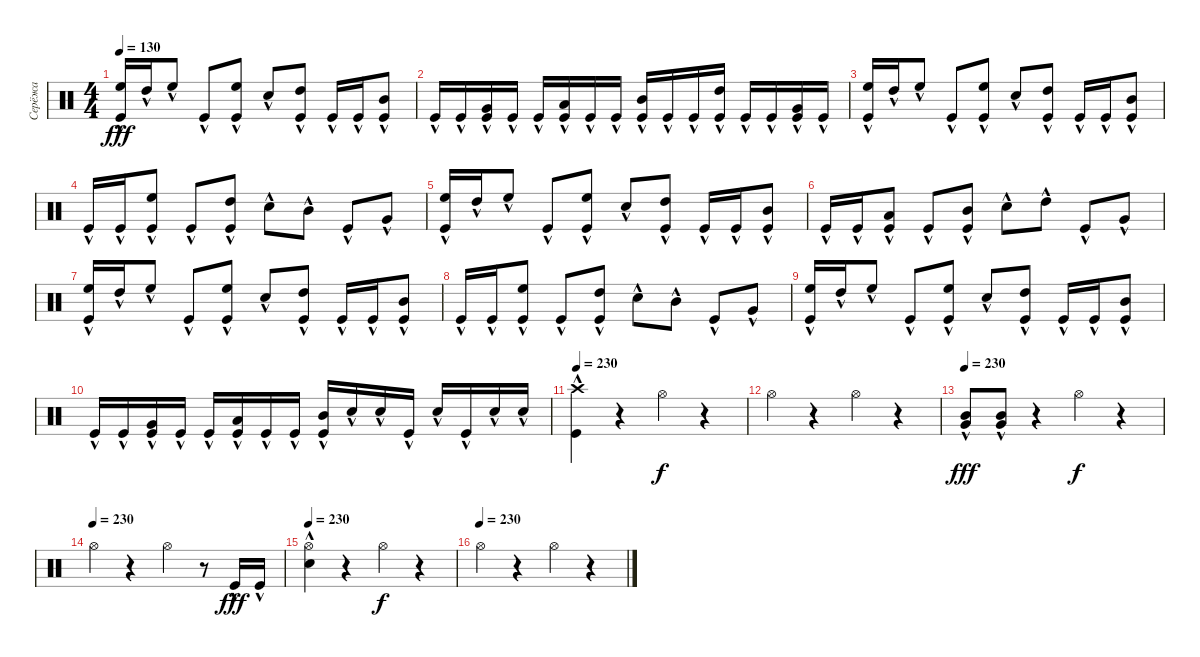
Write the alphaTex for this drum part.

\track ("Серёжа" "Серёжа") {instrument percussion}
\staff {score}
\articulation defaults
\ts (4 4)
\tempo 130
\clef neutral
\ks c
("High Floor Tom (hit)"{hac} "Kick (hit)"{hac}).16{dy fff} "High Tom (hit)"{hac}.16 "High Floor Tom (hit)"{hac}.8 "Kick (hit)"{hac}.8 ("High Floor Tom (hit)"{hac} "Kick (hit)"{hac}).8 "Snare (hit) 2"{hac}.8 ("High Tom (hit)"{hac} "Kick (hit)"{hac}).8 "Kick (hit)"{hac}.16 "Kick (hit)"{hac}.16 ("Mid Tom (hit)"{hac} "Kick (hit)"{hac}).8 |
"Kick (hit)"{hac}.16 "Kick (hit)"{hac}.16 ("Very Low Tom (hit)"{hac} "Kick (hit)"{hac}).16 "Kick (hit)"{hac}.16 "Kick (hit)"{hac}.16 ("Low Tom (hit)"{hac} "Kick (hit)"{hac}).16 "Kick (hit)"{hac}.16 "Kick (hit)"{hac}.16 ("Mid Tom (hit)"{hac} "Kick (hit)"{hac}).16 "Kick (hit)"{hac}.16 "Kick (hit)"{hac}.16 ("High Tom (hit)"{hac} "Kick (hit)"{hac}).16 "Kick (hit)"{hac}.16 "Kick (hit)"{hac}.16 ("Very Low Tom (hit)"{hac} "Kick (hit)"{hac}).16 "Kick (hit)"{hac}.16 |
("High Floor Tom (hit)"{hac} "Kick (hit)"{hac}).16 "High Tom (hit)"{hac}.16 "High Floor Tom (hit)"{hac}.8 "Kick (hit)"{hac}.8 ("High Floor Tom (hit)"{hac} "Kick (hit)"{hac}).8 "Snare (hit) 2"{hac}.8 ("High Tom (hit)"{hac} "Kick (hit)"{hac}).8 "Kick (hit)"{hac}.16 "Kick (hit)"{hac}.16 ("Mid Tom (hit)"{hac} "Kick (hit)"{hac}).8 |
"Kick (hit)"{hac}.16 "Kick (hit)"{hac}.16 ("High Floor Tom (hit)"{hac} "Kick (hit)"{hac}).8 "Kick (hit)"{hac}.8 ("High Tom (hit)"{hac} "Kick (hit)"{hac}).8 "Snare (hit) 2"{hac}.8 "Mid Tom (hit)"{hac}.8 "Kick (hit)"{hac}.8 "Very Low Tom (hit)"{hac}.8 |
("High Floor Tom (hit)"{hac} "Kick (hit)"{hac}).16 "High Tom (hit)"{hac}.16 "High Floor Tom (hit)"{hac}.8 "Kick (hit)"{hac}.8 ("High Floor Tom (hit)"{hac} "Kick (hit)"{hac}).8 "Snare (hit) 2"{hac}.8 ("High Tom (hit)"{hac} "Kick (hit)"{hac}).8 "Kick (hit)"{hac}.16 "Kick (hit)"{hac}.16 ("Mid Tom (hit)"{hac} "Kick (hit)"{hac}).8 |
"Kick (hit)"{hac}.16 "Kick (hit)"{hac}.16 ("Low Tom (hit)"{hac} "Kick (hit)"{hac}).8 "Kick (hit)"{hac}.8 ("Mid Tom (hit)"{hac} "Kick (hit)"{hac}).8 "Snare (hit) 2"{hac}.8 "High Tom (hit)"{hac}.8 "Kick (hit)"{hac}.8 "Very Low Tom (hit)"{hac}.8 |
("High Floor Tom (hit)"{hac} "Kick (hit)"{hac}).16 "High Tom (hit)"{hac}.16 "High Floor Tom (hit)"{hac}.8 "Kick (hit)"{hac}.8 ("High Floor Tom (hit)"{hac} "Kick (hit)"{hac}).8 "Snare (hit) 2"{hac}.8 ("High Tom (hit)"{hac} "Kick (hit)"{hac}).8 "Kick (hit)"{hac}.16 "Kick (hit)"{hac}.16 ("Mid Tom (hit)"{hac} "Kick (hit)"{hac}).8 |
"Kick (hit)"{hac}.16 "Kick (hit)"{hac}.16 ("High Floor Tom (hit)"{hac} "Kick (hit)"{hac}).8 "Kick (hit)"{hac}.8 ("High Tom (hit)"{hac} "Kick (hit)"{hac}).8 "Snare (hit) 2"{hac}.8 "Mid Tom (hit)"{hac}.8 "Kick (hit)"{hac}.8 "Very Low Tom (hit)"{hac}.8 |
("High Floor Tom (hit)"{hac} "Kick (hit)"{hac}).16 "High Tom (hit)"{hac}.16 "High Floor Tom (hit)"{hac}.8 "Kick (hit)"{hac}.8 ("High Floor Tom (hit)"{hac} "Kick (hit)"{hac}).8 "Snare (hit) 2"{hac}.8 ("High Tom (hit)"{hac} "Kick (hit)"{hac}).8 "Kick (hit)"{hac}.16 "Kick (hit)"{hac}.16 ("Mid Tom (hit)"{hac} "Kick (hit)"{hac}).8 |
"Kick (hit)"{hac}.16 "Kick (hit)"{hac}.16 ("Very Low Tom (hit)"{hac} "Kick (hit)"{hac}).16 "Kick (hit)"{hac}.16 "Kick (hit)"{hac}.16 ("Low Tom (hit)"{hac} "Kick (hit)"{hac}).16 "Kick (hit)"{hac}.16 "Kick (hit)"{hac}.16 ("Mid Tom (hit)"{hac} "Kick (hit)"{hac}).16 "Snare (hit) 2"{hac}.16 "Snare (hit) 2"{hac}.16 "Kick (hit)"{hac}.16 "Snare (hit) 2"{hac}.16 "Kick (hit)"{hac}.16 "Snare (hit) 2"{hac}.16 "Snare (hit) 2"{hac}.16 |
\tempo 230
("Crash high (hit)"{hac} "Kick (hit)"{hac}).4 r.4 "Hi-Hat (open)".4{dy f} r.4 |
"Hi-Hat (open)".4 r.4 "Hi-Hat (open)".4 r.4 |
\tempo 230
("Very Low Tom (hit)"{hac} "Mid Tom (hit)"{hac}).8{dy fff} ("Very Low Tom (hit)"{hac} "Mid Tom (hit)"{hac}).8 r.4 "Hi-Hat (open)".4{dy f} r.4 |
\tempo (230)
"Hi-Hat (open)".4 r.4 "Hi-Hat (open)".4 r.8 "Kick (hit)"{hac}.16{dy fff} "Kick (hit)"{hac}.16 |
\tempo 230
("Hi-Hat (open)" "Snare (hit) 2"{hac}).4 r.4 "Hi-Hat (open)".4{dy f} r.4 |
\tempo (230)
"Hi-Hat (open)".4 r.4 "Hi-Hat (open)".4 r.4
